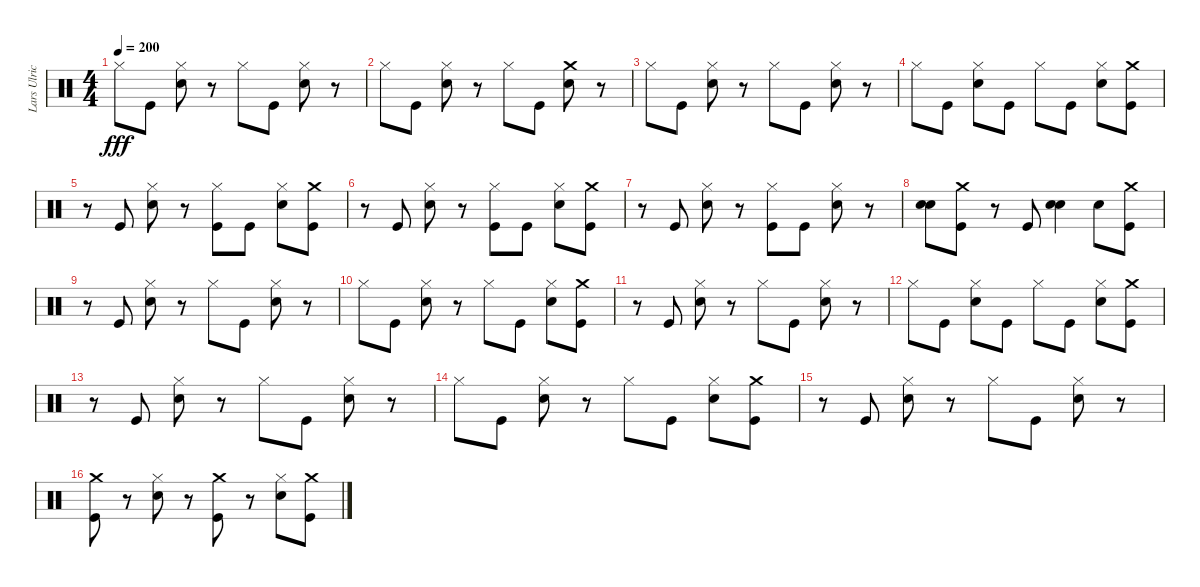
\track ("Lars Ulrich" "Lars Ulric") {instrument percussion}
\staff {score}
\articulation defaults
\ts (4 4)
\tempo 200
\clef neutral
\ks c "Hi-Hat (closed)".8{dy fff} "Kick (hit)".8
("Hi-Hat (closed)" "Snare (hit) 2").8 r.8 "Hi-Hat (closed)".8 "Kick (hit)".8 ("Hi-Hat (closed)" "Snare (hit) 2").8 r.8 |
"Hi-Hat (closed)".8 "Kick (hit)".8 ("Hi-Hat (closed)" "Snare (hit) 2").8 r.8 "Hi-Hat (closed)".8 "Kick (hit)".8 ("Crash medium (hit)" "Snare (hit) 2").8 r.8 |
"Hi-Hat (closed)".8 "Kick (hit)".8 ("Hi-Hat (closed)" "Snare (hit) 2").8 r.8 "Hi-Hat (closed)".8 "Kick (hit)".8 ("Hi-Hat (closed)" "Snare (hit) 2").8 r.8 |
"Hi-Hat (closed)".8 "Kick (hit)".8 ("Hi-Hat (closed)" "Snare (hit) 2").8 "Kick (hit)".8 "Hi-Hat (closed)".8 "Kick (hit)".8 ("Hi-Hat (closed)" "Snare (hit) 2").8 ("Crash medium (hit)" "Kick (hit)").8 |
r.8 "Kick (hit)".8 ("Hi-Hat (closed)" "Snare (hit) 2").8 r.8 ("Kick (hit)" "Hi-Hat (closed)").8 "Kick (hit)".8 ("Hi-Hat (closed)" "Snare (hit) 2").8 ("Crash medium (hit)" "Kick (hit)").8 |
r.8 "Kick (hit)".8 ("Hi-Hat (closed)" "Snare (hit) 2").8 r.8 ("Kick (hit)" "Hi-Hat (closed)").8 "Kick (hit)".8 ("Hi-Hat (closed)" "Snare (hit) 2").8 ("Crash medium (hit)" "Kick (hit)").8 |
r.8 "Kick (hit)".8 ("Hi-Hat (closed)" "Snare (hit) 2").8 r.8 ("Kick (hit)" "Hi-Hat (closed)").8 "Kick (hit)".8 ("Hi-Hat (closed)" "Snare (hit) 2").8 r.8 |
("Snare (hit) 2" "Snare (hit) 2").8 ("Kick (hit)" "Crash medium (hit)").8 r.8 "Kick (hit)".8 ("Snare (hit) 2" "Snare (hit) 2").4 "Snare (hit) 2".8 ("Crash medium (hit)" "Kick (hit)").8 |
r.8 "Kick (hit)".8 ("Hi-Hat (closed)" "Snare (hit) 2").8 r.8 "Hi-Hat (closed)".8 "Kick (hit)".8 ("Hi-Hat (closed)" "Snare (hit) 2").8 r.8 |
"Hi-Hat (closed)".8 "Kick (hit)".8 ("Hi-Hat (closed)" "Snare (hit) 2").8 r.8 "Hi-Hat (closed)".8 "Kick (hit)".8 ("Hi-Hat (closed)" "Snare (hit) 2").8 ("Crash medium (hit)" "Kick (hit)").8 |
r.8 "Kick (hit)".8 ("Hi-Hat (closed)" "Snare (hit) 2").8 r.8 "Hi-Hat (closed)".8 "Kick (hit)".8 ("Hi-Hat (closed)" "Snare (hit) 2").8 r.8 |
"Hi-Hat (closed)".8 "Kick (hit)".8 ("Hi-Hat (closed)" "Snare (hit) 2").8 "Kick (hit)".8 "Hi-Hat (closed)".8 "Kick (hit)".8 ("Hi-Hat (closed)" "Snare (hit) 2").8 ("Crash medium (hit)" "Kick (hit)").8 |
r.8 "Kick (hit)".8 ("Hi-Hat (closed)" "Snare (hit) 2").8 r.8 "Hi-Hat (closed)".8 "Kick (hit)".8 ("Hi-Hat (closed)" "Snare (hit) 2").8 r.8 |
"Hi-Hat (closed)".8 "Kick (hit)".8 ("Hi-Hat (closed)" "Snare (hit) 2").8 r.8 "Hi-Hat (closed)".8 "Kick (hit)".8 ("Hi-Hat (closed)" "Snare (hit) 2").8 ("Crash medium (hit)" "Kick (hit)").8 |
r.8 "Kick (hit)".8 ("Hi-Hat (closed)" "Snare (hit) 2").8 r.8 "Hi-Hat (closed)".8 "Kick (hit)".8 ("Hi-Hat (closed)" "Snare (hit) 2").8 r.8 |
("Crash medium (hit)" "Kick (hit)").8 r.8 ("Snare (hit) 2" "Hi-Hat (closed)").8 r.8 ("Crash medium (hit)" "Kick (hit)").8 r.8 ("Hi-Hat (closed)" "Snare (hit) 2").8 ("Crash medium (hit)" "Kick (hit)").8
